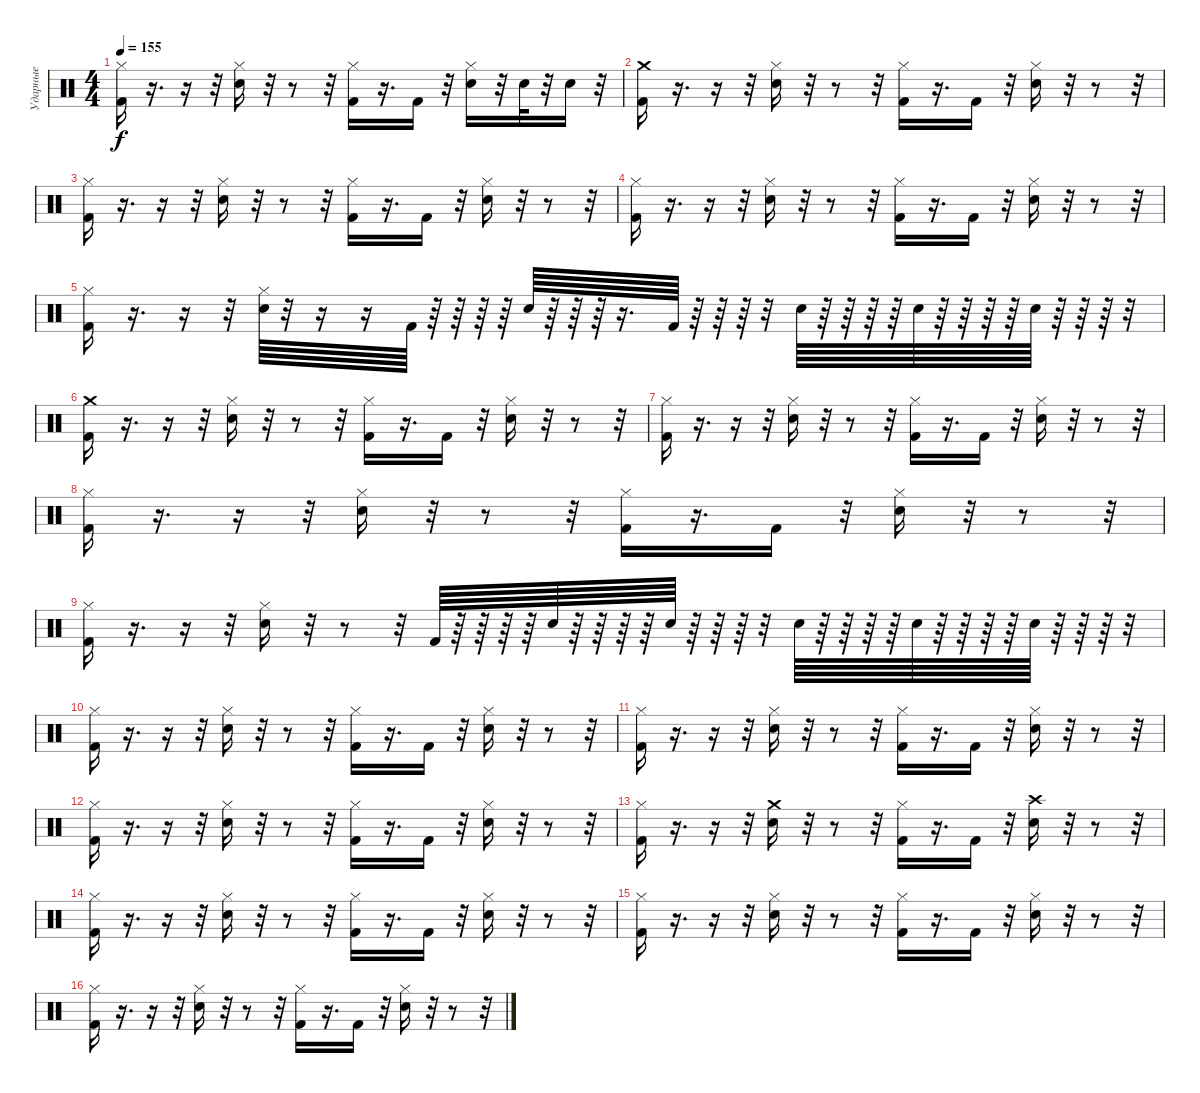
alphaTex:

\track ("Ударные" "Ударные") {instrument percussion}
\staff {score}
\articulation defaults
\ts (4 4)
\tempo 155
\clef neutral
\ks c
("Hi-Hat (closed)" "Kick (hit) 2").16{dy f} r.16{d} r.16 r.32 ("Snare (hit) 2" "Hi-Hat (closed)").16 r.32 r.8 r.32 ("Hi-Hat (closed)" "Kick (hit) 2").16 r.16{d} "Kick (hit) 2".16 r.32 ("Snare (hit) 2" "Hi-Hat (closed)").16 r.32 "Electric Snare (hit)".32 r.32 "Electric Snare (hit)".16 r.32 |
("Crash medium (hit)" "Kick (hit) 2").16 r.16{d} r.16 r.32 ("Snare (hit) 2" "Hi-Hat (closed)").16 r.32 r.8 r.32 ("Hi-Hat (closed)" "Kick (hit) 2").16 r.16{d} "Kick (hit) 2".16 r.32 ("Snare (hit) 2" "Hi-Hat (closed)").16 r.32 r.8 r.32 |
("Hi-Hat (closed)" "Kick (hit) 2").16 r.16{d} r.16 r.32 ("Snare (hit) 2" "Hi-Hat (closed)").16 r.32 r.8 r.32 ("Hi-Hat (closed)" "Kick (hit) 2").16 r.16{d} "Kick (hit) 2".16 r.32 ("Snare (hit) 2" "Hi-Hat (closed)").16 r.32 r.8 r.32 |
("Hi-Hat (closed)" "Kick (hit) 2").16 r.16{d} r.16 r.32 ("Snare (hit) 2" "Hi-Hat (closed)").16 r.32 r.8 r.32 ("Hi-Hat (closed)" "Kick (hit) 2").16 r.16{d} "Kick (hit) 2".16 r.32 ("Snare (hit) 2" "Hi-Hat (closed)").16 r.32 r.8 r.32 |
("Hi-Hat (closed)" "Kick (hit) 2").16 r.16{d} r.16 r.32 ("Snare (hit) 2" "Hi-Hat (closed)").64 r.32 r.16 r.16 "Kick (hit) 2".64 r.64 r.64 r.64 r.64 "Electric Snare (hit)".64 r.64 r.64 r.64 r.16{d} "Kick (hit) 2".64 r.64 r.64 r.64 r.32 "Electric Snare (hit)".64 r.64 r.64 r.64 r.64 "Electric Snare (hit)".64 r.64 r.64 r.64 r.64 "Electric Snare (hit)".64 r.64 r.64 r.64 r.32 |
("Crash medium (hit)" "Kick (hit) 2").16 r.16{d} r.16 r.32 ("Snare (hit) 2" "Hi-Hat (closed)").16 r.32 r.8 r.32 ("Hi-Hat (closed)" "Kick (hit) 2").16 r.16{d} "Kick (hit) 2".16 r.32 ("Snare (hit) 2" "Hi-Hat (closed)").16 r.32 r.8 r.32 |
("Hi-Hat (closed)" "Kick (hit) 2").16 r.16{d} r.16 r.32 ("Snare (hit) 2" "Hi-Hat (closed)").16 r.32 r.8 r.32 ("Hi-Hat (closed)" "Kick (hit) 2").16 r.16{d} "Kick (hit) 2".16 r.32 ("Snare (hit) 2" "Hi-Hat (closed)").16 r.32 r.8 r.32 |
("Hi-Hat (closed)" "Kick (hit) 2").16 r.16{d} r.16 r.32 ("Snare (hit) 2" "Hi-Hat (closed)").16 r.32 r.8 r.32 ("Hi-Hat (closed)" "Kick (hit) 2").16 r.16{d} "Kick (hit) 2".16 r.32 ("Snare (hit) 2" "Hi-Hat (closed)").16 r.32 r.8 r.32 |
("Hi-Hat (closed)" "Kick (hit) 2").16 r.16{d} r.16 r.32 ("Snare (hit) 2" "Hi-Hat (closed)").16 r.32 r.8 r.32 "Kick (hit) 2".64 r.64 r.64 r.64 r.64 "Snare (hit) 2".64 r.64 r.64 r.64 r.64 "Electric Snare (hit)".64 r.64 r.64 r.64 r.32 "Electric Snare (hit)".64 r.64 r.64 r.64 r.64 "Electric Snare (hit)".64 r.64 r.64 r.64 r.64 "Electric Snare (hit)".64 r.64 r.64 r.64 r.32 |
("Hi-Hat (closed)" "Kick (hit) 2").16 r.16{d} r.16 r.32 ("Snare (hit) 2" "Hi-Hat (closed)").16 r.32 r.8 r.32 ("Hi-Hat (closed)" "Kick (hit) 2").16 r.16{d} "Kick (hit) 2".16 r.32 ("Snare (hit) 2" "Hi-Hat (closed)").16 r.32 r.8 r.32 |
("Hi-Hat (closed)" "Kick (hit) 2").16 r.16{d} r.16 r.32 ("Snare (hit) 2" "Hi-Hat (closed)").16 r.32 r.8 r.32 ("Hi-Hat (closed)" "Kick (hit) 2").16 r.16{d} "Kick (hit) 2".16 r.32 ("Snare (hit) 2" "Hi-Hat (closed)").16 r.32 r.8 r.32 |
("Hi-Hat (closed)" "Kick (hit) 2").16 r.16{d} r.16 r.32 ("Snare (hit) 2" "Hi-Hat (closed)").16 r.32 r.8 r.32 ("Hi-Hat (closed)" "Kick (hit) 2").16 r.16{d} "Kick (hit) 2".16 r.32 ("Snare (hit) 2" "Hi-Hat (closed)").16 r.32 r.8 r.32 |
("Hi-Hat (closed)" "Kick (hit) 2").16 r.16{d} r.16 r.32 ("Snare (hit) 2" "Crash medium (hit)").16 r.32 r.8 r.32 ("Hi-Hat (closed)" "Kick (hit) 2").16 r.16{d} "Kick (hit) 2".16 r.32 ("Snare (hit) 2" "Crash high (hit)").16 r.32 r.8 r.32 |
("Hi-Hat (closed)" "Kick (hit) 2").16 r.16{d} r.16 r.32 ("Snare (hit) 2" "Hi-Hat (closed)").16 r.32 r.8 r.32 ("Hi-Hat (closed)" "Kick (hit) 2").16 r.16{d} "Kick (hit) 2".16 r.32 ("Snare (hit) 2" "Hi-Hat (closed)").16 r.32 r.8 r.32 |
("Hi-Hat (closed)" "Kick (hit) 2").16 r.16{d} r.16 r.32 ("Snare (hit) 2" "Hi-Hat (closed)").16 r.32 r.8 r.32 ("Hi-Hat (closed)" "Kick (hit) 2").16 r.16{d} "Kick (hit) 2".16 r.32 ("Snare (hit) 2" "Hi-Hat (closed)").16 r.32 r.8 r.32 |
("Hi-Hat (closed)" "Kick (hit) 2").16 r.16{d} r.16 r.32 ("Snare (hit) 2" "Hi-Hat (closed)").16 r.32 r.8 r.32 ("Hi-Hat (closed)" "Kick (hit) 2").16 r.16{d} "Kick (hit) 2".16 r.32 ("Snare (hit) 2" "Hi-Hat (closed)").16 r.32 r.8 r.32
